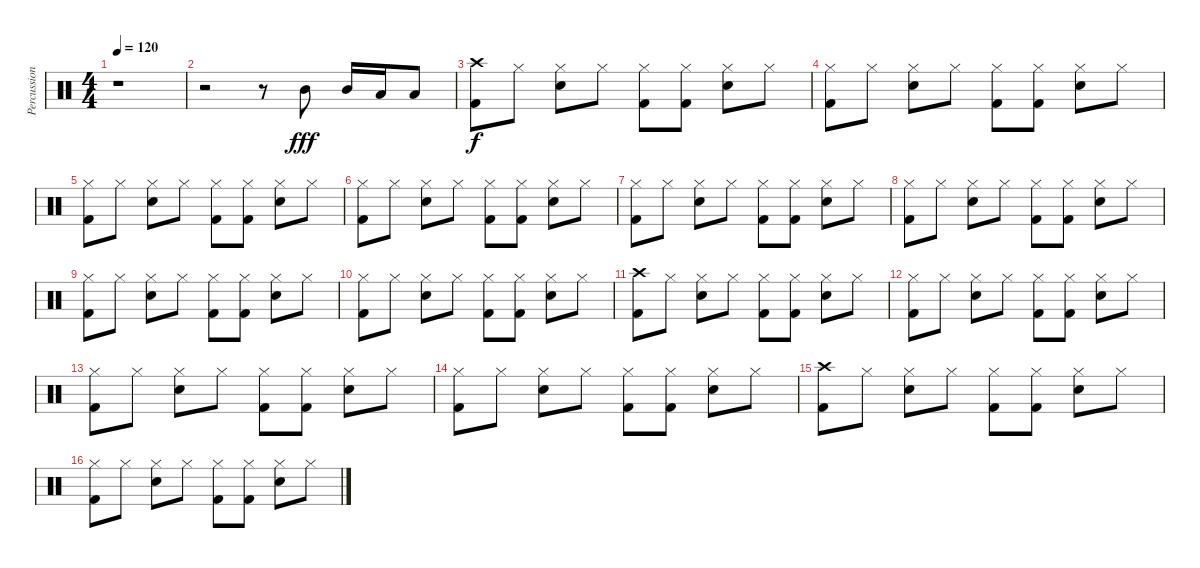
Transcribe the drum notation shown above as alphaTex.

\track ("Percussion" "Percussion") {instrument percussion}
\staff {score}
\articulation defaults
\ts (4 4)
\tempo 120
\clef neutral
\ks c
r.1{dy f} |
r.2 r.8 "Mid Tom (hit)".8{dy fff} "Mid Tom (hit)".16 "Low Tom (hit)".16 "Low Tom (hit)".8 |
("Crash high (hit)" "Kick (hit) 2").8{dy f} "Hi-Hat (closed)".8 ("Hi-Hat (closed)" "Electric Snare (hit)").8 "Hi-Hat (closed)".8 ("Hi-Hat (closed)" "Kick (hit) 2").8 ("Hi-Hat (closed)" "Kick (hit) 2").8 ("Hi-Hat (closed)" "Electric Snare (hit)").8 "Hi-Hat (closed)".8 |
("Hi-Hat (closed)" "Kick (hit) 2").8 "Hi-Hat (closed)".8 ("Hi-Hat (closed)" "Electric Snare (hit)").8 "Hi-Hat (closed)".8 ("Hi-Hat (closed)" "Kick (hit) 2").8 ("Hi-Hat (closed)" "Kick (hit) 2").8 ("Hi-Hat (closed)" "Electric Snare (hit)").8 "Hi-Hat (closed)".8 |
("Hi-Hat (closed)" "Kick (hit) 2").8 "Hi-Hat (closed)".8 ("Hi-Hat (closed)" "Electric Snare (hit)").8 "Hi-Hat (closed)".8 ("Hi-Hat (closed)" "Kick (hit) 2").8 ("Hi-Hat (closed)" "Kick (hit) 2").8 ("Hi-Hat (closed)" "Electric Snare (hit)").8 "Hi-Hat (closed)".8 |
("Hi-Hat (closed)" "Kick (hit) 2").8 "Hi-Hat (closed)".8 ("Hi-Hat (closed)" "Electric Snare (hit)").8 "Hi-Hat (closed)".8 ("Hi-Hat (closed)" "Kick (hit) 2").8 ("Hi-Hat (closed)" "Kick (hit) 2").8 ("Hi-Hat (closed)" "Electric Snare (hit)").8 "Hi-Hat (closed)".8 |
("Hi-Hat (closed)" "Kick (hit) 2").8 "Hi-Hat (closed)".8 ("Hi-Hat (closed)" "Electric Snare (hit)").8 "Hi-Hat (closed)".8 ("Hi-Hat (closed)" "Kick (hit) 2").8 ("Hi-Hat (closed)" "Kick (hit) 2").8 ("Hi-Hat (closed)" "Electric Snare (hit)").8 "Hi-Hat (closed)".8 |
("Hi-Hat (closed)" "Kick (hit) 2").8 "Hi-Hat (closed)".8 ("Hi-Hat (closed)" "Electric Snare (hit)").8 "Hi-Hat (closed)".8 ("Hi-Hat (closed)" "Kick (hit) 2").8 ("Hi-Hat (closed)" "Kick (hit) 2").8 ("Hi-Hat (closed)" "Electric Snare (hit)").8 "Hi-Hat (closed)".8 |
("Hi-Hat (closed)" "Kick (hit) 2").8 "Hi-Hat (closed)".8 ("Hi-Hat (closed)" "Electric Snare (hit)").8 "Hi-Hat (closed)".8 ("Hi-Hat (closed)" "Kick (hit) 2").8 ("Hi-Hat (closed)" "Kick (hit) 2").8 ("Hi-Hat (closed)" "Electric Snare (hit)").8 "Hi-Hat (closed)".8 |
("Hi-Hat (closed)" "Kick (hit) 2").8 "Hi-Hat (closed)".8 ("Hi-Hat (closed)" "Electric Snare (hit)").8 "Hi-Hat (closed)".8 ("Hi-Hat (closed)" "Kick (hit) 2").8 ("Hi-Hat (closed)" "Kick (hit) 2").8 ("Hi-Hat (closed)" "Electric Snare (hit)").8 "Hi-Hat (closed)".8 |
("Crash high (hit)" "Kick (hit) 2").8 "Hi-Hat (closed)".8 ("Hi-Hat (closed)" "Electric Snare (hit)").8 "Hi-Hat (closed)".8 ("Hi-Hat (closed)" "Kick (hit) 2").8 ("Hi-Hat (closed)" "Kick (hit) 2").8 ("Hi-Hat (closed)" "Electric Snare (hit)").8 "Hi-Hat (closed)".8 |
("Hi-Hat (closed)" "Kick (hit) 2").8 "Hi-Hat (closed)".8 ("Hi-Hat (closed)" "Electric Snare (hit)").8 "Hi-Hat (closed)".8 ("Hi-Hat (closed)" "Kick (hit) 2").8 ("Hi-Hat (closed)" "Kick (hit) 2").8 ("Hi-Hat (closed)" "Electric Snare (hit)").8 "Hi-Hat (closed)".8 |
("Hi-Hat (closed)" "Kick (hit) 2").8 "Hi-Hat (closed)".8 ("Hi-Hat (closed)" "Electric Snare (hit)").8 "Hi-Hat (closed)".8 ("Hi-Hat (closed)" "Kick (hit) 2").8 ("Hi-Hat (closed)" "Kick (hit) 2").8 ("Hi-Hat (closed)" "Electric Snare (hit)").8 "Hi-Hat (closed)".8 |
("Hi-Hat (closed)" "Kick (hit) 2").8 "Hi-Hat (closed)".8 ("Hi-Hat (closed)" "Electric Snare (hit)").8 "Hi-Hat (closed)".8 ("Hi-Hat (closed)" "Kick (hit) 2").8 ("Hi-Hat (closed)" "Kick (hit) 2").8 ("Hi-Hat (closed)" "Electric Snare (hit)").8 "Hi-Hat (closed)".8 |
("Crash high (hit)" "Kick (hit) 2").8 "Hi-Hat (closed)".8 ("Hi-Hat (closed)" "Electric Snare (hit)").8 "Hi-Hat (closed)".8 ("Hi-Hat (closed)" "Kick (hit) 2").8 ("Hi-Hat (closed)" "Kick (hit) 2").8 ("Hi-Hat (closed)" "Electric Snare (hit)").8 "Hi-Hat (closed)".8 |
("Hi-Hat (closed)" "Kick (hit) 2").8 "Hi-Hat (closed)".8 ("Hi-Hat (closed)" "Electric Snare (hit)").8 "Hi-Hat (closed)".8 ("Hi-Hat (closed)" "Kick (hit) 2").8 ("Hi-Hat (closed)" "Kick (hit) 2").8 ("Hi-Hat (closed)" "Electric Snare (hit)").8 "Hi-Hat (closed)".8
